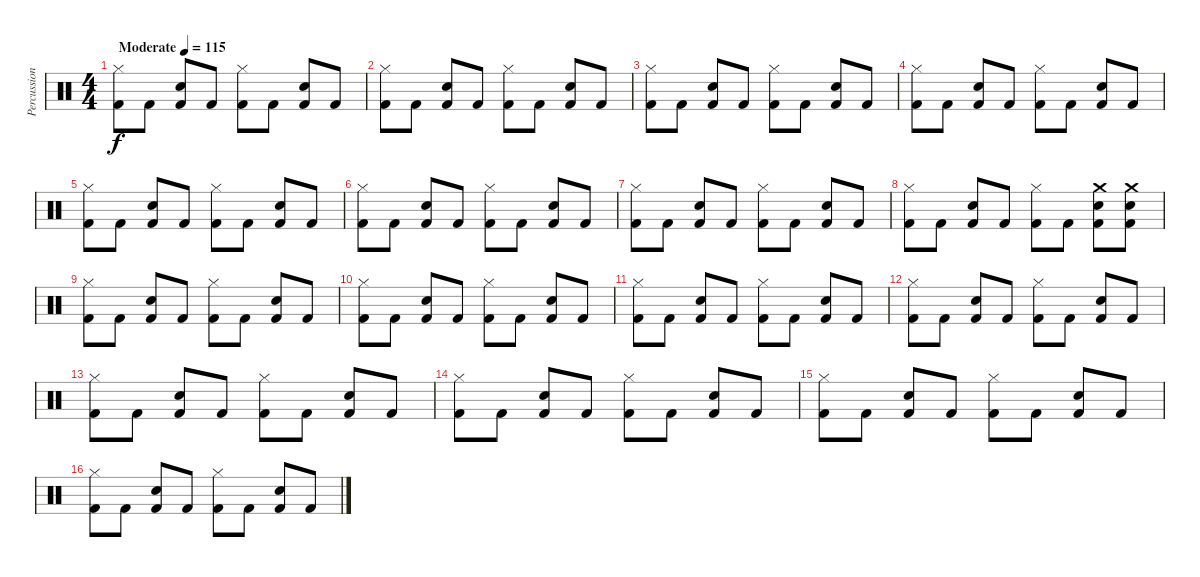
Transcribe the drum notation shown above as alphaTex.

\track ("Percussion" "Percussion") {instrument percussion}
\staff {score}
\articulation defaults
\ts (4 4)
\tempo (115 "Moderate")
\clef neutral
\ks c
("Kick (hit) 2" "Hi-Hat (closed)").8{dy f} "Kick (hit) 2".8 ("Kick (hit) 2" "Snare (hit) 2").8 "Kick (hit) 2".8 ("Kick (hit) 2" "Hi-Hat (closed)").8 "Kick (hit) 2".8 ("Kick (hit) 2" "Snare (hit) 2").8 "Kick (hit) 2".8 |
("Kick (hit) 2" "Hi-Hat (closed)").8 "Kick (hit) 2".8 ("Kick (hit) 2" "Snare (hit) 2").8 "Kick (hit) 2".8 ("Kick (hit) 2" "Hi-Hat (closed)").8 "Kick (hit) 2".8 ("Kick (hit) 2" "Snare (hit) 2").8 "Kick (hit) 2".8 |
("Kick (hit) 2" "Hi-Hat (closed)").8 "Kick (hit) 2".8 ("Kick (hit) 2" "Snare (hit) 2").8 "Kick (hit) 2".8 ("Kick (hit) 2" "Hi-Hat (closed)").8 "Kick (hit) 2".8 ("Kick (hit) 2" "Snare (hit) 2").8 "Kick (hit) 2".8 |
("Kick (hit) 2" "Hi-Hat (closed)").8 "Kick (hit) 2".8 ("Kick (hit) 2" "Snare (hit) 2").8 "Kick (hit) 2".8 ("Kick (hit) 2" "Hi-Hat (closed)").8 "Kick (hit) 2".8 ("Kick (hit) 2" "Snare (hit) 2").8 "Kick (hit) 2".8 |
("Kick (hit) 2" "Hi-Hat (closed)").8 "Kick (hit) 2".8 ("Kick (hit) 2" "Snare (hit) 2").8 "Kick (hit) 2".8 ("Kick (hit) 2" "Hi-Hat (closed)").8 "Kick (hit) 2".8 ("Kick (hit) 2" "Snare (hit) 2").8 "Kick (hit) 2".8 |
("Kick (hit) 2" "Hi-Hat (closed)").8 "Kick (hit) 2".8 ("Kick (hit) 2" "Snare (hit) 2").8 "Kick (hit) 2".8 ("Kick (hit) 2" "Hi-Hat (closed)").8 "Kick (hit) 2".8 ("Kick (hit) 2" "Snare (hit) 2").8 "Kick (hit) 2".8 |
("Kick (hit) 2" "Hi-Hat (closed)").8 "Kick (hit) 2".8 ("Kick (hit) 2" "Snare (hit) 2").8 "Kick (hit) 2".8 ("Kick (hit) 2" "Hi-Hat (closed)").8 "Kick (hit) 2".8 ("Kick (hit) 2" "Snare (hit) 2").8 "Kick (hit) 2".8 |
("Kick (hit) 2" "Hi-Hat (closed)").8 "Kick (hit) 2".8 ("Kick (hit) 2" "Snare (hit) 2").8 "Kick (hit) 2".8 ("Kick (hit) 2" "Hi-Hat (closed)").8 "Kick (hit) 2".8 ("Kick (hit) 2" "Snare (hit) 2" "Crash medium (hit)").8 ("Kick (hit) 2" "Snare (hit) 2" "Crash medium (hit)").8 |
("Kick (hit) 2" "Hi-Hat (closed)").8 "Kick (hit) 2".8 ("Kick (hit) 2" "Snare (hit) 2").8 "Kick (hit) 2".8 ("Kick (hit) 2" "Hi-Hat (closed)").8 "Kick (hit) 2".8 ("Kick (hit) 2" "Snare (hit) 2").8 "Kick (hit) 2".8 |
("Kick (hit) 2" "Hi-Hat (closed)").8 "Kick (hit) 2".8 ("Kick (hit) 2" "Snare (hit) 2").8 "Kick (hit) 2".8 ("Kick (hit) 2" "Hi-Hat (closed)").8 "Kick (hit) 2".8 ("Kick (hit) 2" "Snare (hit) 2").8 "Kick (hit) 2".8 |
("Kick (hit) 2" "Hi-Hat (closed)").8 "Kick (hit) 2".8 ("Kick (hit) 2" "Snare (hit) 2").8 "Kick (hit) 2".8 ("Kick (hit) 2" "Hi-Hat (closed)").8 "Kick (hit) 2".8 ("Kick (hit) 2" "Snare (hit) 2").8 "Kick (hit) 2".8 |
("Kick (hit) 2" "Hi-Hat (closed)").8 "Kick (hit) 2".8 ("Kick (hit) 2" "Snare (hit) 2").8 "Kick (hit) 2".8 ("Kick (hit) 2" "Hi-Hat (closed)").8 "Kick (hit) 2".8 ("Kick (hit) 2" "Snare (hit) 2").8 "Kick (hit) 2".8 |
("Kick (hit) 2" "Hi-Hat (closed)").8 "Kick (hit) 2".8 ("Kick (hit) 2" "Snare (hit) 2").8 "Kick (hit) 2".8 ("Kick (hit) 2" "Hi-Hat (closed)").8 "Kick (hit) 2".8 ("Kick (hit) 2" "Snare (hit) 2").8 "Kick (hit) 2".8 |
("Kick (hit) 2" "Hi-Hat (closed)").8 "Kick (hit) 2".8 ("Kick (hit) 2" "Snare (hit) 2").8 "Kick (hit) 2".8 ("Kick (hit) 2" "Hi-Hat (closed)").8 "Kick (hit) 2".8 ("Kick (hit) 2" "Snare (hit) 2").8 "Kick (hit) 2".8 |
("Kick (hit) 2" "Hi-Hat (closed)").8 "Kick (hit) 2".8 ("Kick (hit) 2" "Snare (hit) 2").8 "Kick (hit) 2".8 ("Kick (hit) 2" "Hi-Hat (closed)").8 "Kick (hit) 2".8 ("Kick (hit) 2" "Snare (hit) 2").8 "Kick (hit) 2".8 |
("Kick (hit) 2" "Hi-Hat (closed)").8 "Kick (hit) 2".8 ("Kick (hit) 2" "Snare (hit) 2").8 "Kick (hit) 2".8 ("Kick (hit) 2" "Hi-Hat (closed)").8 "Kick (hit) 2".8 ("Kick (hit) 2" "Snare (hit) 2").8 "Kick (hit) 2".8
